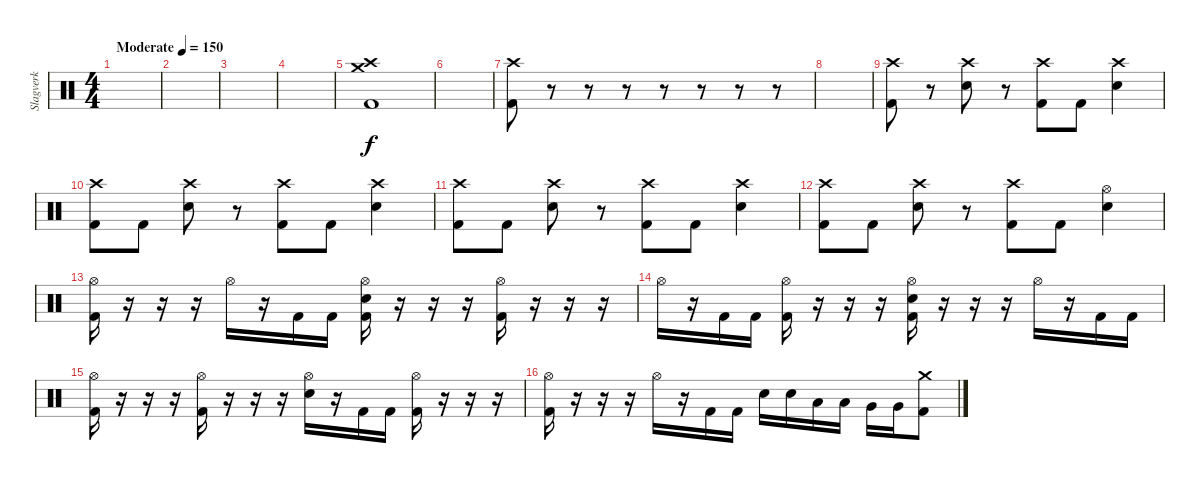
\track ("Slagverk" "Slagverk") {instrument percussion}
\staff {score}
\articulation defaults
\ts (4 4)
\tempo (150 "Moderate")
\clef neutral
\ks c
|
|
|
|
("Crash medium (hit)" "Crash high (hit)" "Kick (hit) 2").1 |
|
("Crash high (hit)" "Kick (hit) 2").8 r.8 r.8 r.8 r.8 r.8 r.8 r.8 |
|
("Crash high (hit)" "Kick (hit) 2").8 r.8 ("Crash high (hit)" "Electric Snare (hit)").8 r.8 ("Crash high (hit)" "Kick (hit) 2").8 "Kick (hit) 2".8 ("Crash high (hit)" "Electric Snare (hit)").4 |
("Crash high (hit)" "Kick (hit) 2").8 "Kick (hit) 2".8 ("Crash high (hit)" "Electric Snare (hit)").8 r.8 ("Crash high (hit)" "Kick (hit) 2").8 "Kick (hit) 2".8 ("Crash high (hit)" "Electric Snare (hit)").4 |
("Crash high (hit)" "Kick (hit) 2").8 "Kick (hit) 2".8 ("Crash high (hit)" "Electric Snare (hit)").8 r.8 ("Crash high (hit)" "Kick (hit) 2").8 "Kick (hit) 2".8 ("Crash high (hit)" "Electric Snare (hit)").4 |
("Crash high (hit)" "Kick (hit) 2").8 "Kick (hit) 2".8 ("Crash high (hit)" "Electric Snare (hit)").8 r.8 ("Crash high (hit)" "Kick (hit) 2").8 "Kick (hit) 2".8 ("Hi-Hat (open)" "Electric Snare (hit)").4 |
("Hi-Hat (open)" "Kick (hit) 2").16 r.16 r.16 r.16 "Hi-Hat (open)".16 r.16 "Kick (hit) 2".16 "Kick (hit) 2".16 ("Hi-Hat (open)" "Electric Snare (hit)" "Kick (hit) 2").16 r.16 r.16 r.16 ("Hi-Hat (open)" "Kick (hit) 2").16 r.16 r.16 r.16 |
"Hi-Hat (open)".16 r.16 "Kick (hit) 2".16 "Kick (hit) 2".16 ("Hi-Hat (open)" "Kick (hit) 2").16 r.16 r.16 r.16 ("Hi-Hat (open)" "Electric Snare (hit)" "Kick (hit) 2").16 r.16 r.16 r.16 "Hi-Hat (open)".16 r.16 "Kick (hit) 2".16 "Kick (hit) 2".16 |
("Hi-Hat (open)" "Kick (hit) 2").16 r.16 r.16 r.16 ("Hi-Hat (open)" "Kick (hit) 2").16 r.16 r.16 r.16 ("Hi-Hat (open)" "Electric Snare (hit)").16 r.16 "Kick (hit) 2".16 "Kick (hit) 2".16 ("Hi-Hat (open)" "Kick (hit) 2").16 r.16 r.16 r.16 |
("Hi-Hat (open)" "Kick (hit) 2").16 r.16 r.16 r.16 "Hi-Hat (open)".16 r.16 "Kick (hit) 2".16 "Kick (hit) 2".16 "Electric Snare (hit)".16 "Electric Snare (hit)".16 "Low Floor Tom (hit)".16 "Low Floor Tom (hit)".16 "Very Low Tom (hit)".16 "Very Low Tom (hit)".16 ("Crash medium (hit)" "Kick (hit) 2").8
